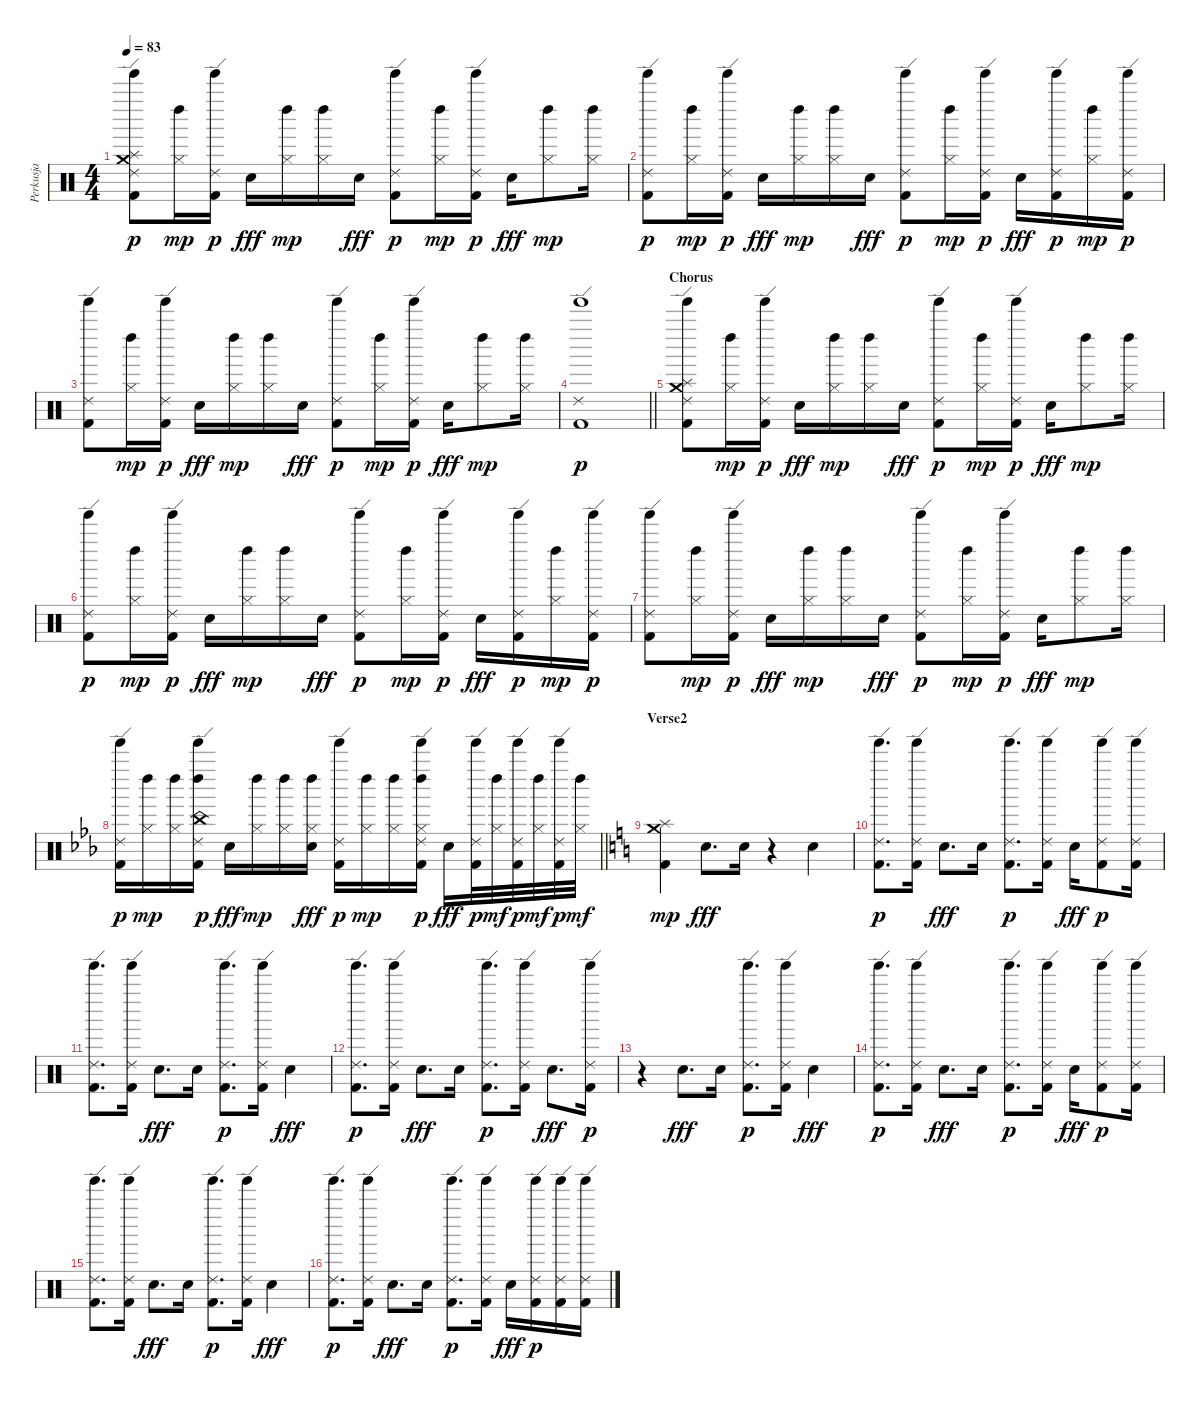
\track ("Perkusja" "Perkusja") {instrument percussion}
\staff {score}
\articulation defaults
\ts (4 4)
\tempo 83
\clef neutral
\ks c
("Crash medium (hit)" "Splash (hit)" "Tinkle Bell (hit)" "Ride (edge) 2" "Kick (hit) 2").8{dy p} ("Hi-Hat (closed)" "Left Maraca (hit)").16{dy mp} ("Tinkle Bell (hit)" "Ride (edge) 2" "Kick (hit) 2").16{dy p} "Hand Clap (hit)".16{dy fff} ("Hi-Hat (closed)" "Left Maraca (hit)").16{dy mp} ("Hi-Hat (closed)" "Left Maraca (hit)").16 "Hand Clap (hit)".16{dy fff} ("Tinkle Bell (hit)" "Ride (edge) 2" "Kick (hit) 2").8{dy p} ("Hi-Hat (closed)" "Left Maraca (hit)").16{dy mp} ("Tinkle Bell (hit)" "Ride (edge) 2" "Kick (hit) 2").16{dy p} "Hand Clap (hit)".16{dy fff} ("Hi-Hat (closed)" "Left Maraca (hit)").8{dy mp} ("Hi-Hat (closed)" "Left Maraca (hit)").16 |
("Tinkle Bell (hit)" "Ride (edge) 2" "Kick (hit) 2").8{dy p} ("Hi-Hat (closed)" "Left Maraca (hit)").16{dy mp} ("Tinkle Bell (hit)" "Ride (edge) 2" "Kick (hit) 2").16{dy p} "Hand Clap (hit)".16{dy fff} ("Hi-Hat (closed)" "Left Maraca (hit)").16{dy mp} ("Hi-Hat (closed)" "Left Maraca (hit)").16 "Hand Clap (hit)".16{dy fff} ("Tinkle Bell (hit)" "Ride (edge) 2" "Kick (hit) 2").8{dy p} ("Hi-Hat (closed)" "Left Maraca (hit)").16{dy mp} ("Tinkle Bell (hit)" "Ride (edge) 2" "Kick (hit) 2").16{dy p} "Hand Clap (hit)".16{dy fff} ("Tinkle Bell (hit)" "Ride (edge) 2" "Kick (hit) 2").16{dy p} ("Hi-Hat (closed)" "Left Maraca (hit)").16{dy mp} ("Tinkle Bell (hit)" "Ride (edge) 2" "Kick (hit) 2").16{dy p} |
("Tinkle Bell (hit)" "Ride (edge) 2" "Kick (hit) 2").8 ("Hi-Hat (closed)" "Left Maraca (hit)").16{dy mp} ("Tinkle Bell (hit)" "Ride (edge) 2" "Kick (hit) 2").16{dy p} "Hand Clap (hit)".16{dy fff} ("Hi-Hat (closed)" "Left Maraca (hit)").16{dy mp} ("Hi-Hat (closed)" "Left Maraca (hit)").16 "Hand Clap (hit)".16{dy fff} ("Tinkle Bell (hit)" "Ride (edge) 2" "Kick (hit) 2").8{dy p} ("Hi-Hat (closed)" "Left Maraca (hit)").16{dy mp} ("Tinkle Bell (hit)" "Ride (edge) 2" "Kick (hit) 2").16{dy p} "Hand Clap (hit)".16{dy fff} ("Hi-Hat (closed)" "Left Maraca (hit)").8{dy mp} ("Hi-Hat (closed)" "Left Maraca (hit)").16 |
\barLineRight lightlight
("Tinkle Bell (hit)" "Ride (edge) 2" "Kick (hit) 2").1{dy p} |
\section ("" "Chorus")
("Crash medium (hit)" "Splash (hit)" "Tinkle Bell (hit)" "Ride (edge) 2" "Kick (hit) 2").8 ("Hi-Hat (closed)" "Left Maraca (hit)").16{dy mp} ("Tinkle Bell (hit)" "Ride (edge) 2" "Kick (hit) 2").16{dy p} "Hand Clap (hit)".16{dy fff} ("Hi-Hat (closed)" "Left Maraca (hit)").16{dy mp} ("Hi-Hat (closed)" "Left Maraca (hit)").16 "Hand Clap (hit)".16{dy fff} ("Tinkle Bell (hit)" "Ride (edge) 2" "Kick (hit) 2").8{dy p} ("Hi-Hat (closed)" "Left Maraca (hit)").16{dy mp} ("Tinkle Bell (hit)" "Ride (edge) 2" "Kick (hit) 2").16{dy p} "Hand Clap (hit)".16{dy fff} ("Hi-Hat (closed)" "Left Maraca (hit)").8{dy mp} ("Hi-Hat (closed)" "Left Maraca (hit)").16 |
("Tinkle Bell (hit)" "Ride (edge) 2" "Kick (hit) 2").8{dy p} ("Hi-Hat (closed)" "Left Maraca (hit)").16{dy mp} ("Tinkle Bell (hit)" "Ride (edge) 2" "Kick (hit) 2").16{dy p} "Hand Clap (hit)".16{dy fff} ("Hi-Hat (closed)" "Left Maraca (hit)").16{dy mp} ("Hi-Hat (closed)" "Left Maraca (hit)").16 "Hand Clap (hit)".16{dy fff} ("Tinkle Bell (hit)" "Ride (edge) 2" "Kick (hit) 2").8{dy p} ("Hi-Hat (closed)" "Left Maraca (hit)").16{dy mp} ("Tinkle Bell (hit)" "Ride (edge) 2" "Kick (hit) 2").16{dy p} "Hand Clap (hit)".16{dy fff} ("Tinkle Bell (hit)" "Ride (edge) 2" "Kick (hit) 2").16{dy p} ("Hi-Hat (closed)" "Left Maraca (hit)").16{dy mp} ("Tinkle Bell (hit)" "Ride (edge) 2" "Kick (hit) 2").16{dy p} |
("Tinkle Bell (hit)" "Ride (edge) 2" "Kick (hit) 2").8 ("Hi-Hat (closed)" "Left Maraca (hit)").16{dy mp} ("Tinkle Bell (hit)" "Ride (edge) 2" "Kick (hit) 2").16{dy p} "Hand Clap (hit)".16{dy fff} ("Hi-Hat (closed)" "Left Maraca (hit)").16{dy mp} ("Hi-Hat (closed)" "Left Maraca (hit)").16 "Hand Clap (hit)".16{dy fff} ("Tinkle Bell (hit)" "Ride (edge) 2" "Kick (hit) 2").8{dy p} ("Hi-Hat (closed)" "Left Maraca (hit)").16{dy mp} ("Tinkle Bell (hit)" "Ride (edge) 2" "Kick (hit) 2").16{dy p} "Hand Clap (hit)".16{dy fff} ("Hi-Hat (closed)" "Left Maraca (hit)").8{dy mp} ("Hi-Hat (closed)" "Left Maraca (hit)").16 |
\barLineRight lightlight
\ks eb
("Tinkle Bell (hit)" "Ride (edge) 2" "Kick (hit) 2").16{dy p} ("Hi-Hat (closed)" "Left Maraca (hit)").16{dy mp} ("Hi-Hat (closed)" "Left Maraca (hit)").16 ("China (hit)" "Left Maraca (hit)" "Tinkle Bell (hit)" "Ride (edge) 2" "Kick (hit) 2").16{dy p} "Hand Clap (hit)".16{dy fff} ("Hi-Hat (closed)" "Left Maraca (hit)").16{dy mp} ("Hi-Hat (closed)" "Left Maraca (hit)").16 ("Hi-Hat (closed)" "Left Maraca (hit)" "Hand Clap (hit)").16{dy fff} ("Tinkle Bell (hit)" "Ride (edge) 2" "Kick (hit) 2").16{dy p} ("Hi-Hat (closed)" "Left Maraca (hit)").16{dy mp} ("Hi-Hat (closed)" "Left Maraca (hit)").16 ("Hi-Hat (closed)" "Left Maraca (hit)" "Tinkle Bell (hit)" "Ride (edge) 2" "Kick (hit) 2").16{dy p} "Hand Clap (hit)".16{dy fff} ("Tinkle Bell (hit)" "Ride (edge) 2" "Kick (hit) 2").32{dy p} ("Hi-Hat (closed)" "Left Maraca (hit)").32{dy mf} ("Tinkle Bell (hit)" "Ride (edge) 2" "Kick (hit) 2").32{dy p} ("Hi-Hat (closed)" "Left Maraca (hit)").32{dy mf} ("Tinkle Bell (hit)" "Ride (edge) 2" "Kick (hit) 2").32{dy p} ("Hi-Hat (closed)" "Left Maraca (hit)").32{dy mf} |
\section ("" "Verse2")
\ks c
("Crash medium (hit)" "Splash (hit)" "Kick (hit) 2").4{dy mp} "Hand Clap (hit)".8{d dy fff} "Hand Clap (hit)".16 r.4 "Hand Clap (hit)".4 |
("Tinkle Bell (hit)" "Ride (edge) 2" "Kick (hit) 2").8{d dy p} ("Tinkle Bell (hit)" "Ride (edge) 2" "Kick (hit) 2").16 "Hand Clap (hit)".8{d dy fff} "Hand Clap (hit)".16 ("Tinkle Bell (hit)" "Ride (edge) 2" "Kick (hit) 2").8{d dy p} ("Tinkle Bell (hit)" "Ride (edge) 2" "Kick (hit) 2").16 "Hand Clap (hit)".16{dy fff} ("Tinkle Bell (hit)" "Ride (edge) 2" "Kick (hit) 2").8{dy p} ("Tinkle Bell (hit)" "Ride (edge) 2" "Kick (hit) 2").16 |
("Tinkle Bell (hit)" "Ride (edge) 2" "Kick (hit) 2").8{d} ("Tinkle Bell (hit)" "Ride (edge) 2" "Kick (hit) 2").16 "Hand Clap (hit)".8{d dy fff} "Hand Clap (hit)".16 ("Tinkle Bell (hit)" "Ride (edge) 2" "Kick (hit) 2").8{d dy p} ("Tinkle Bell (hit)" "Ride (edge) 2" "Kick (hit) 2").16 "Hand Clap (hit)".4{dy fff} |
("Tinkle Bell (hit)" "Ride (edge) 2" "Kick (hit) 2").8{d dy p} ("Tinkle Bell (hit)" "Ride (edge) 2" "Kick (hit) 2").16 "Hand Clap (hit)".8{d dy fff} "Hand Clap (hit)".16 ("Tinkle Bell (hit)" "Ride (edge) 2" "Kick (hit) 2").8{d dy p} ("Tinkle Bell (hit)" "Ride (edge) 2" "Kick (hit) 2").16 "Hand Clap (hit)".8{d dy fff} ("Tinkle Bell (hit)" "Ride (edge) 2" "Kick (hit) 2").16{dy p} |
r.4 "Hand Clap (hit)".8{d dy fff} "Hand Clap (hit)".16 ("Tinkle Bell (hit)" "Ride (edge) 2" "Kick (hit) 2").8{d dy p} ("Tinkle Bell (hit)" "Ride (edge) 2" "Kick (hit) 2").16 "Hand Clap (hit)".4{dy fff} |
("Tinkle Bell (hit)" "Ride (edge) 2" "Kick (hit) 2").8{d dy p} ("Tinkle Bell (hit)" "Ride (edge) 2" "Kick (hit) 2").16 "Hand Clap (hit)".8{d dy fff} "Hand Clap (hit)".16 ("Tinkle Bell (hit)" "Ride (edge) 2" "Kick (hit) 2").8{d dy p} ("Tinkle Bell (hit)" "Ride (edge) 2" "Kick (hit) 2").16 "Hand Clap (hit)".16{dy fff} ("Tinkle Bell (hit)" "Ride (edge) 2" "Kick (hit) 2").8{dy p} ("Tinkle Bell (hit)" "Ride (edge) 2" "Kick (hit) 2").16 |
("Tinkle Bell (hit)" "Ride (edge) 2" "Kick (hit) 2").8{d} ("Tinkle Bell (hit)" "Ride (edge) 2" "Kick (hit) 2").16 "Hand Clap (hit)".8{d dy fff} "Hand Clap (hit)".16 ("Tinkle Bell (hit)" "Ride (edge) 2" "Kick (hit) 2").8{d dy p} ("Tinkle Bell (hit)" "Ride (edge) 2" "Kick (hit) 2").16 "Hand Clap (hit)".4{dy fff} |
("Tinkle Bell (hit)" "Ride (edge) 2" "Kick (hit) 2").8{d dy p} ("Tinkle Bell (hit)" "Ride (edge) 2" "Kick (hit) 2").16 "Hand Clap (hit)".8{d dy fff} "Hand Clap (hit)".16 ("Tinkle Bell (hit)" "Ride (edge) 2" "Kick (hit) 2").8{d dy p} ("Tinkle Bell (hit)" "Ride (edge) 2" "Kick (hit) 2").16 "Hand Clap (hit)".16{dy fff} ("Tinkle Bell (hit)" "Ride (edge) 2" "Kick (hit) 2").16{dy p} ("Tinkle Bell (hit)" "Ride (edge) 2" "Kick (hit) 2").16 ("Tinkle Bell (hit)" "Ride (edge) 2" "Kick (hit) 2").16
